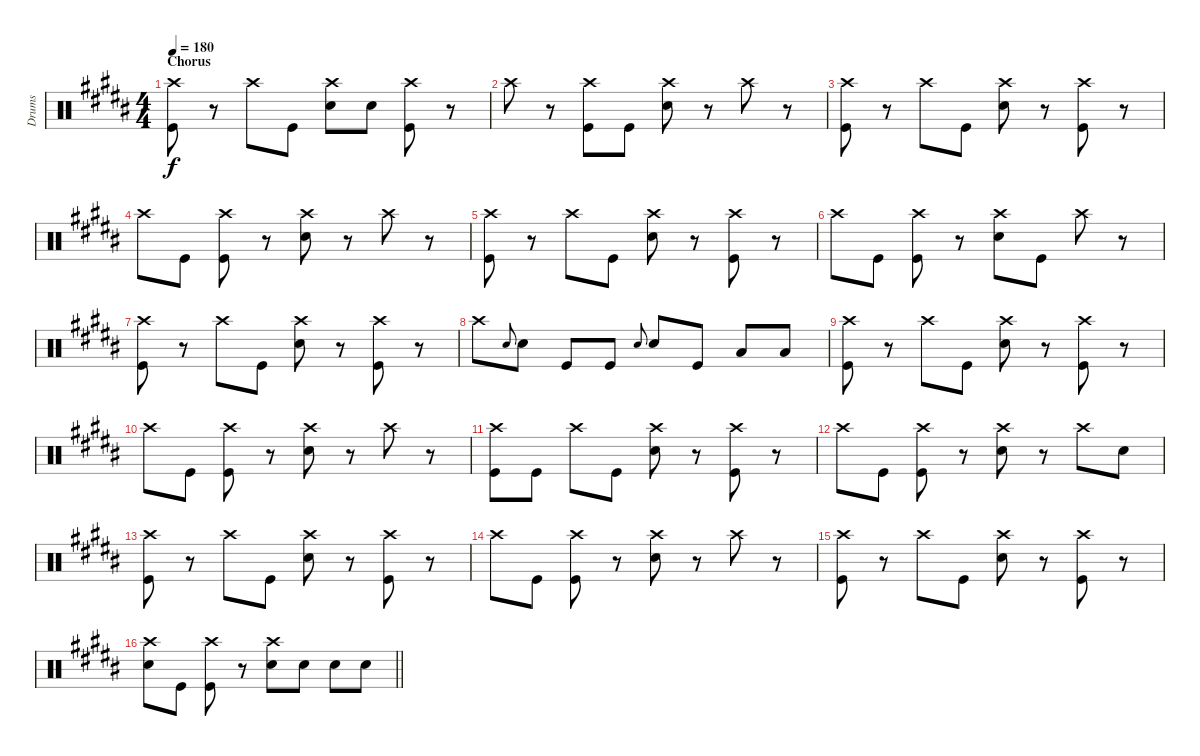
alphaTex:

\track ("Drums" "Drums") {instrument percussion}
\staff {score}
\articulation defaults
\ts (4 4)
\section ("" "Chorus")
\tempo 180
\clef neutral
\ks b
("Crash high (hit)" "Kick (hit)").8{dy f} r.8 "Crash high (hit)".8 "Kick (hit)".8 ("Crash high (hit)" "Snare (hit) 2").8 "Snare (hit) 2".8 ("Crash high (hit)" "Kick (hit)").8 r.8 |
"Crash high (hit)".8 r.8 ("Crash high (hit)" "Kick (hit)").8 "Kick (hit)".8 ("Crash high (hit)" "Snare (hit) 2").8 r.8 "Crash high (hit)".8 r.8 |
("Crash high (hit)" "Kick (hit)").8 r.8 "Crash high (hit)".8 "Kick (hit)".8 ("Crash high (hit)" "Snare (hit) 2").8 r.8 ("Crash high (hit)" "Kick (hit)").8 r.8 |
"Crash high (hit)".8 "Kick (hit)".8 ("Crash high (hit)" "Kick (hit)").8 r.8 ("Crash high (hit)" "Snare (hit) 2").8 r.8 "Crash high (hit)".8 r.8 |
("Crash high (hit)" "Kick (hit)").8 r.8 "Crash high (hit)".8 "Kick (hit)".8 ("Crash high (hit)" "Snare (hit) 2").8 r.8 ("Crash high (hit)" "Kick (hit)").8 r.8 |
"Crash high (hit)".8 "Kick (hit)".8 ("Crash high (hit)" "Kick (hit)").8 r.8 ("Crash high (hit)" "Snare (hit) 2").8 "Kick (hit)".8 "Crash high (hit)".8 r.8 |
("Crash high (hit)" "Kick (hit)").8 r.8 "Crash high (hit)".8 "Kick (hit)".8 ("Crash high (hit)" "Snare (hit) 2").8 r.8 ("Crash high (hit)" "Kick (hit)").8 r.8 |
"Crash high (hit)".8 "Snare (hit) 2".8{gr onbeat} "Snare (hit) 2".8 "Kick (hit)".8 "Kick (hit)".8 "Snare (hit) 2".8{gr onbeat} "Snare (hit) 2".8 "Kick (hit)".8 "Low Floor Tom (hit)".8 "Low Floor Tom (hit)".8 |
("Crash high (hit)" "Kick (hit)").8 r.8 "Crash high (hit)".8 "Kick (hit)".8 ("Crash high (hit)" "Snare (hit) 2").8 r.8 ("Crash high (hit)" "Kick (hit)").8 r.8 |
"Crash high (hit)".8 "Kick (hit)".8 ("Crash high (hit)" "Kick (hit)").8 r.8 ("Crash high (hit)" "Snare (hit) 2").8 r.8 "Crash high (hit)".8 r.8 |
("Crash high (hit)" "Kick (hit)").8 "Kick (hit)".8 "Crash high (hit)".8 "Kick (hit)".8 ("Crash high (hit)" "Snare (hit) 2").8 r.8 ("Crash high (hit)" "Kick (hit)").8 r.8 |
"Crash high (hit)".8 "Kick (hit)".8 ("Crash high (hit)" "Kick (hit)").8 r.8 ("Crash high (hit)" "Snare (hit) 2").8 r.8 "Crash high (hit)".8 "Snare (hit) 2".8 |
("Crash high (hit)" "Kick (hit)").8 r.8 "Crash high (hit)".8 "Kick (hit)".8 ("Crash high (hit)" "Snare (hit) 2").8 r.8 ("Crash high (hit)" "Kick (hit)").8 r.8 |
"Crash high (hit)".8 "Kick (hit)".8 ("Crash high (hit)" "Kick (hit)").8 r.8 ("Crash high (hit)" "Snare (hit) 2").8 r.8 "Crash high (hit)".8 r.8 |
("Crash high (hit)" "Kick (hit)").8 r.8 "Crash high (hit)".8 "Kick (hit)".8 ("Crash high (hit)" "Snare (hit) 2").8 r.8 ("Crash high (hit)" "Kick (hit)").8 r.8 |
\barLineRight lightlight
("Crash high (hit)" "Snare (hit) 2").8 "Kick (hit)".8 ("Crash high (hit)" "Kick (hit)").8 r.8 ("Crash high (hit)" "Snare (hit) 2").8 "Snare (hit) 2".8 "Snare (hit) 2".8 "Snare (hit) 2".8
